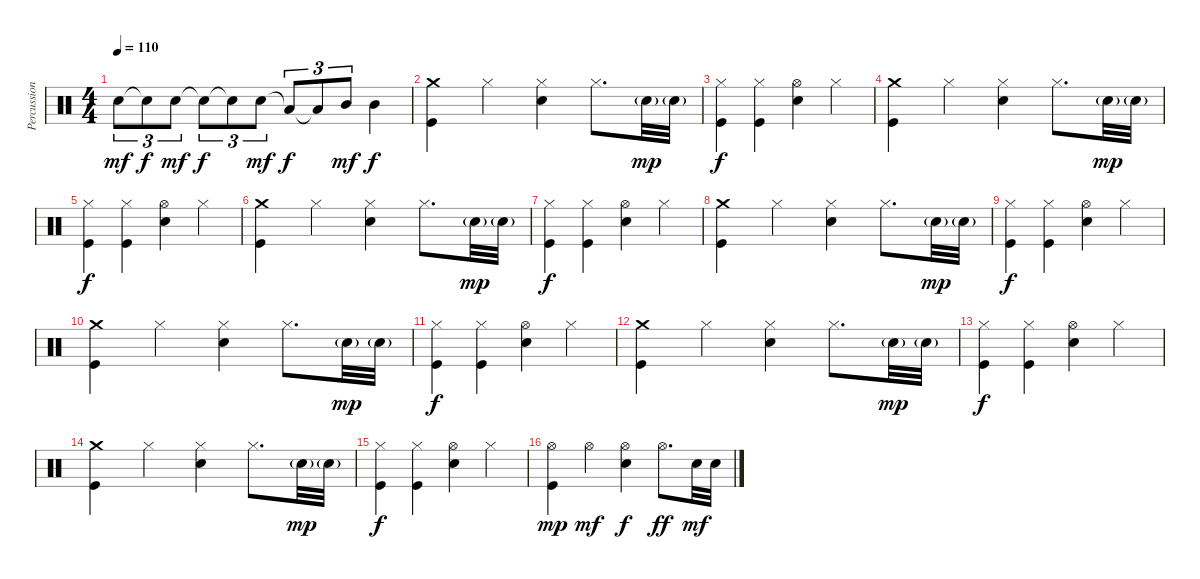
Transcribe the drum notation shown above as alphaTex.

\track ("Percussioni" "Percussion") {instrument percussion}
\staff {score}
\articulation defaults
\ts (4 4)
\tempo 110
\clef neutral
\ks c "Electric Snare (hit)".8{tu (3 2) dy mf} "Snare (hit)"{t}.8{tu (3 2) dy f} "Electric Snare (hit)".8{tu (3 2) dy mf} "Electric Snare (hit)"{t}.8{tu (3 2) dy f} "Snare (hit)"{t}.8{tu (3 2)} "Electric Snare (hit)".8{tu (3 2) dy mf} "Low Tom (hit)"{t}.8{tu (3 2) dy f} "Low Tom (hit)"{t}.8{tu (3 2)} "Mid Tom (hit)".8{tu (3 2) dy mf} "Mid Tom (hit)".4{dy f}
|
("Crash medium (hit)" "Kick (hit)").4 "Hi-Hat (closed)".4 ("Hi-Hat (closed)" "Electric Snare (hit)").4 "Hi-Hat (closed)".8{d} "Electric Snare (hit)"{g}.32{dy mp} "Electric Snare (hit)"{g}.32 |
("Hi-Hat (closed)" "Kick (hit)").4{dy f} ("Hi-Hat (closed)" "Kick (hit)").4 ("Hi-Hat (open)" "Electric Snare (hit)").4 "Hi-Hat (closed)".4 |
("Crash medium (hit)" "Kick (hit)").4 "Hi-Hat (closed)".4 ("Hi-Hat (closed)" "Electric Snare (hit)").4 "Hi-Hat (closed)".8{d} "Electric Snare (hit)"{g}.32{dy mp} "Electric Snare (hit)"{g}.32 |
("Hi-Hat (closed)" "Kick (hit)").4{dy f} ("Hi-Hat (closed)" "Kick (hit)").4 ("Hi-Hat (open)" "Electric Snare (hit)").4 "Hi-Hat (closed)".4 |
("Crash medium (hit)" "Kick (hit)").4 "Hi-Hat (closed)".4 ("Hi-Hat (closed)" "Electric Snare (hit)").4 "Hi-Hat (closed)".8{d} "Electric Snare (hit)"{g}.32{dy mp} "Electric Snare (hit)"{g}.32 |
("Hi-Hat (closed)" "Kick (hit)").4{dy f} ("Hi-Hat (closed)" "Kick (hit)").4 ("Hi-Hat (open)" "Electric Snare (hit)").4 "Hi-Hat (closed)".4 |
("Crash medium (hit)" "Kick (hit)").4 "Hi-Hat (closed)".4 ("Hi-Hat (closed)" "Electric Snare (hit)").4 "Hi-Hat (closed)".8{d} "Electric Snare (hit)"{g}.32{dy mp} "Electric Snare (hit)"{g}.32 |
("Hi-Hat (closed)" "Kick (hit)").4{dy f} ("Hi-Hat (closed)" "Kick (hit)").4 ("Hi-Hat (open)" "Electric Snare (hit)").4 "Hi-Hat (closed)".4 |
("Crash medium (hit)" "Kick (hit)").4 "Hi-Hat (closed)".4 ("Hi-Hat (closed)" "Electric Snare (hit)").4 "Hi-Hat (closed)".8{d} "Electric Snare (hit)"{g}.32{dy mp} "Electric Snare (hit)"{g}.32 |
("Hi-Hat (closed)" "Kick (hit)").4{dy f} ("Hi-Hat (closed)" "Kick (hit)").4 ("Hi-Hat (open)" "Electric Snare (hit)").4 "Hi-Hat (closed)".4 |
("Crash medium (hit)" "Kick (hit)").4 "Hi-Hat (closed)".4 ("Hi-Hat (closed)" "Electric Snare (hit)").4 "Hi-Hat (closed)".8{d} "Electric Snare (hit)"{g}.32{dy mp} "Electric Snare (hit)"{g}.32 |
("Hi-Hat (closed)" "Kick (hit)").4{dy f} ("Hi-Hat (closed)" "Kick (hit)").4 ("Hi-Hat (open)" "Electric Snare (hit)").4 "Hi-Hat (closed)".4 |
("Crash medium (hit)" "Kick (hit)").4 "Hi-Hat (closed)".4 ("Hi-Hat (closed)" "Electric Snare (hit)").4 "Hi-Hat (closed)".8{d} "Electric Snare (hit)"{g}.32{dy mp} "Electric Snare (hit)"{g}.32 |
("Hi-Hat (closed)" "Kick (hit)").4{dy f} ("Hi-Hat (closed)" "Kick (hit)").4 ("Hi-Hat (open)" "Electric Snare (hit)").4 "Hi-Hat (closed)".4 |
("Hi-Hat (open)" "Kick (hit)").4{dy mp} "Hi-Hat (open)".4{dy mf} ("Hi-Hat (open)" "Electric Snare (hit)").4{dy f} "Hi-Hat (open)".8{d dy ff} "Electric Snare (hit)".32{dy mf} "Electric Snare (hit)".32
